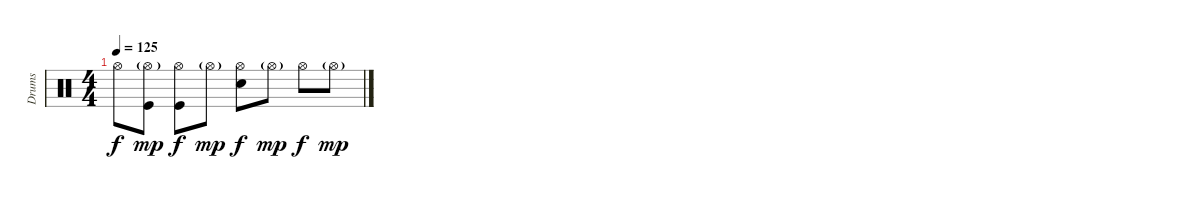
\track ("Drums" "Drums") {instrument percussion}
\staff {score}
\articulation defaults
\ts (4 4)
\tempo 125
\clef neutral
\ks c "Hi-Hat (open)".8{dy f}
("Hi-Hat (open)"{g} "Kick (hit)").8{dy mp} ("Hi-Hat (open)" "Kick (hit)").8{dy f} "Hi-Hat (open)"{g}.8{dy mp} ("Hi-Hat (open)" "Electric Snare (hit)").8{dy f} "Hi-Hat (open)"{g}.8{dy mp} "Hi-Hat (open)".8{dy f} "Hi-Hat (open)"{g}.8{dy mp}
